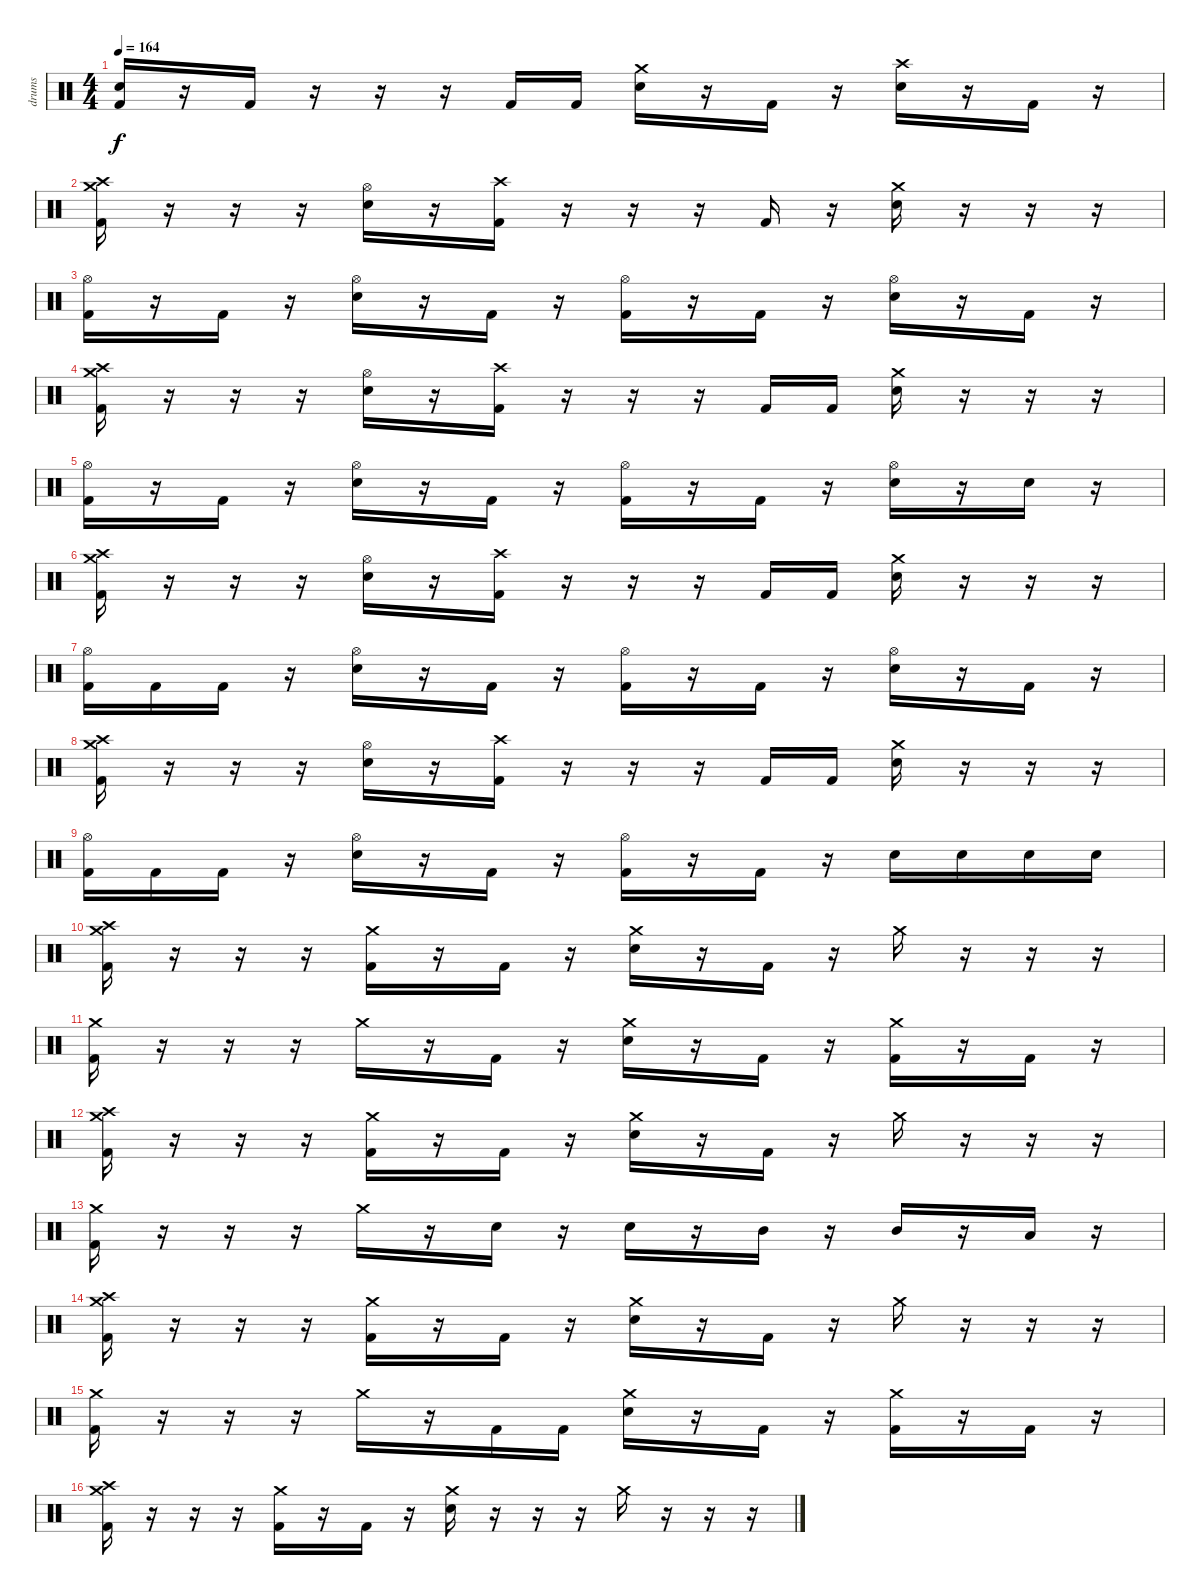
\track ("drums" "drums") {instrument percussion}
\staff {score}
\articulation defaults
\ts (4 4)
\tempo 164
\clef neutral
\ks c
("Electric Snare (hit)" "Kick (hit) 2").16{dy f} r.16 "Kick (hit) 2".16 r.16 r.16 r.16 "Kick (hit) 2".16 "Kick (hit) 2".16 ("Crash medium (hit)" "Electric Snare (hit)").16 r.16 "Kick (hit) 2".16 r.16 ("Crash high (hit)" "Electric Snare (hit)").16 r.16 "Kick (hit) 2".16 r.16 |
("Crash medium (hit)" "Crash high (hit)" "Kick (hit) 2").16 r.16 r.16 r.16 ("Hi-Hat (open)" "Electric Snare (hit)").16 r.16 ("Crash high (hit)" "Kick (hit) 2").16 r.16 r.16 r.16 "Kick (hit) 2".16 r.16 ("Crash medium (hit)" "Electric Snare (hit)").16 r.16 r.16 r.16 |
("Hi-Hat (open)" "Kick (hit) 2").16 r.16 "Kick (hit) 2".16 r.16 ("Hi-Hat (open)" "Electric Snare (hit)").16 r.16 "Kick (hit) 2".16 r.16 ("Hi-Hat (open)" "Kick (hit) 2").16 r.16 "Kick (hit) 2".16 r.16 ("Hi-Hat (open)" "Electric Snare (hit)").16 r.16 "Kick (hit) 2".16 r.16 |
("Crash medium (hit)" "Crash high (hit)" "Kick (hit) 2").16 r.16 r.16 r.16 ("Hi-Hat (open)" "Electric Snare (hit)").16 r.16 ("Crash high (hit)" "Kick (hit) 2").16 r.16 r.16 r.16 "Kick (hit) 2".16 "Kick (hit) 2".16 ("Crash medium (hit)" "Electric Snare (hit)").16 r.16 r.16 r.16 |
("Hi-Hat (open)" "Kick (hit) 2").16 r.16 "Kick (hit) 2".16 r.16 ("Hi-Hat (open)" "Electric Snare (hit)").16 r.16 "Kick (hit) 2".16 r.16 ("Hi-Hat (open)" "Kick (hit) 2").16 r.16 "Kick (hit) 2".16 r.16 ("Hi-Hat (open)" "Electric Snare (hit)").16 r.16 "Electric Snare (hit)".16 r.16 |
("Crash medium (hit)" "Crash high (hit)" "Kick (hit) 2").16 r.16 r.16 r.16 ("Hi-Hat (open)" "Electric Snare (hit)").16 r.16 ("Crash high (hit)" "Kick (hit) 2").16 r.16 r.16 r.16 "Kick (hit) 2".16 "Kick (hit) 2".16 ("Crash medium (hit)" "Electric Snare (hit)").16 r.16 r.16 r.16 |
("Hi-Hat (open)" "Kick (hit) 2").16 "Kick (hit) 2".16 "Kick (hit) 2".16 r.16 ("Hi-Hat (open)" "Electric Snare (hit)").16 r.16 "Kick (hit) 2".16 r.16 ("Hi-Hat (open)" "Kick (hit) 2").16 r.16 "Kick (hit) 2".16 r.16 ("Hi-Hat (open)" "Electric Snare (hit)").16 r.16 "Kick (hit) 2".16 r.16 |
("Crash medium (hit)" "Crash high (hit)" "Kick (hit) 2").16 r.16 r.16 r.16 ("Hi-Hat (open)" "Electric Snare (hit)").16 r.16 ("Crash high (hit)" "Kick (hit) 2").16 r.16 r.16 r.16 "Kick (hit) 2".16 "Kick (hit) 2".16 ("Crash medium (hit)" "Electric Snare (hit)").16 r.16 r.16 r.16 |
("Hi-Hat (open)" "Kick (hit) 2").16 "Kick (hit) 2".16 "Kick (hit) 2".16 r.16 ("Hi-Hat (open)" "Electric Snare (hit)").16 r.16 "Kick (hit) 2".16 r.16 ("Hi-Hat (open)" "Kick (hit) 2").16 r.16 "Kick (hit) 2".16 r.16 "Electric Snare (hit)".16 "Electric Snare (hit)".16 "Electric Snare (hit)".16 "Electric Snare (hit)".16 |
("Crash medium (hit)" "Crash high (hit)" "Kick (hit) 2").16 r.16 r.16 r.16 ("Crash medium (hit)" "Kick (hit) 2").16 r.16 "Kick (hit) 2".16 r.16 ("Crash medium (hit)" "Electric Snare (hit)").16 r.16 "Kick (hit) 2".16 r.16 "Crash medium (hit)".16 r.16 r.16 r.16 |
("Crash medium (hit)" "Kick (hit) 2").16 r.16 r.16 r.16 "Crash medium (hit)".16 r.16 "Kick (hit) 2".16 r.16 ("Crash medium (hit)" "Electric Snare (hit)").16 r.16 "Kick (hit) 2".16 r.16 ("Crash medium (hit)" "Kick (hit) 2").16 r.16 "Kick (hit) 2".16 r.16 |
("Crash medium (hit)" "Crash high (hit)" "Kick (hit) 2").16 r.16 r.16 r.16 ("Crash medium (hit)" "Kick (hit) 2").16 r.16 "Kick (hit) 2".16 r.16 ("Crash medium (hit)" "Electric Snare (hit)").16 r.16 "Kick (hit) 2".16 r.16 "Crash medium (hit)".16 r.16 r.16 r.16 |
("Crash medium (hit)" "Kick (hit) 2").16 r.16 r.16 r.16 "Crash medium (hit)".16 r.16 "Electric Snare (hit)".16 r.16 "Electric Snare (hit)".16 r.16 "Mid Tom (hit)".16 r.16 "Mid Tom (hit)".16 r.16 "Low Floor Tom (hit)".16 r.16 |
("Crash medium (hit)" "Crash high (hit)" "Kick (hit) 2").16 r.16 r.16 r.16 ("Crash medium (hit)" "Kick (hit) 2").16 r.16 "Kick (hit) 2".16 r.16 ("Crash medium (hit)" "Electric Snare (hit)").16 r.16 "Kick (hit) 2".16 r.16 "Crash medium (hit)".16 r.16 r.16 r.16 |
("Crash medium (hit)" "Kick (hit) 2").16 r.16 r.16 r.16 "Crash medium (hit)".16 r.16 "Kick (hit) 2".16 "Kick (hit) 2".16 ("Crash medium (hit)" "Electric Snare (hit)").16 r.16 "Kick (hit) 2".16 r.16 ("Crash medium (hit)" "Kick (hit) 2").16 r.16 "Kick (hit) 2".16 r.16 |
("Crash medium (hit)" "Crash high (hit)" "Kick (hit) 2").16 r.16 r.16 r.16 ("Crash medium (hit)" "Kick (hit) 2").16 r.16 "Kick (hit) 2".16 r.16 ("Crash medium (hit)" "Electric Snare (hit)").16 r.16 r.16 r.16 "Crash medium (hit)".16 r.16 r.16 r.16
